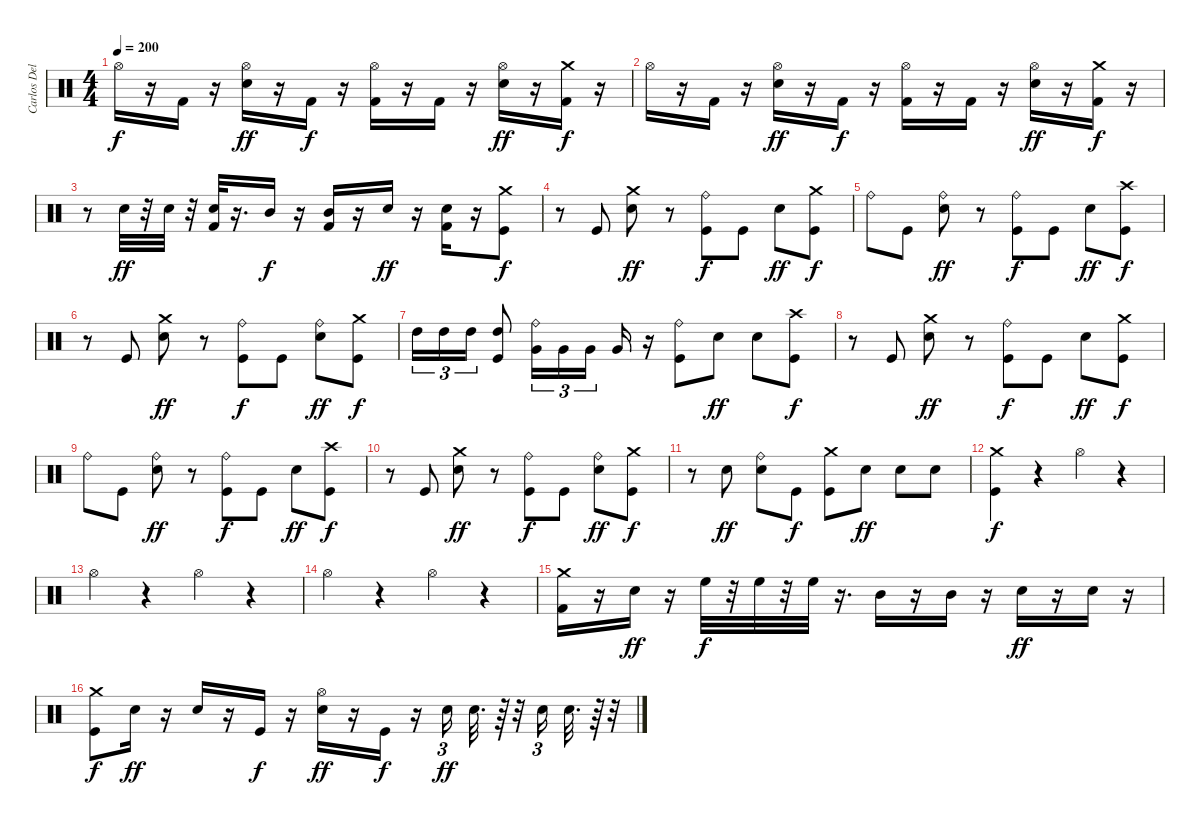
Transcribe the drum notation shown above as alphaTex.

\track ("Carlos Delgado" "Carlos Del") {instrument percussion}
\staff {score}
\articulation defaults
\ts (4 4)
\tempo 200
\clef neutral
\ks c "Hi-Hat (open)".16{dy f}
r.16 "Kick (hit) 2".16 r.16 ("Electric Snare (hit)" "Hi-Hat (open)").16{dy ff} r.16 "Kick (hit) 2".16{dy f} r.16 ("Hi-Hat (open)" "Kick (hit) 2").16 r.16 "Kick (hit) 2".16 r.16 ("Hi-Hat (open)" "Electric Snare (hit)").16{dy ff} r.16 ("Kick (hit) 2" "Crash medium (hit)").16{dy f} r.16 |
"Hi-Hat (open)".16 r.16 "Kick (hit) 2".16 r.16 ("Hi-Hat (open)" "Electric Snare (hit)").16{dy ff} r.16 "Kick (hit) 2".16{dy f} r.16 ("Hi-Hat (open)" "Kick (hit) 2").16 r.16 "Kick (hit) 2".16 r.16 ("Hi-Hat (open)" "Electric Snare (hit)").16{dy ff} r.16 ("Kick (hit) 2" "Crash medium (hit)").16{dy f} r.16 |
r.8 "Electric Snare (hit)".32{dy ff} r.32 "Electric Snare (hit)".32 r.32 ("Kick (hit) 2" "Electric Snare (hit)").32 r.16{d} "Mid Tom (hit)".16{dy f} r.16 ("Kick (hit) 2" "Mid Tom (hit)").16 r.16 "Electric Snare (hit)".16{dy ff} r.16 ("Electric Snare (hit)" "Kick (hit) 2").16 r.16 ("Crash medium (hit)" "Kick (hit)").8{dy f} |
r.8 "Kick (hit)".8 ("Crash medium (hit)" "Electric Snare (hit)").8{dy ff} r.8 ("Ride (bell)" "Kick (hit)").8{dy f} "Kick (hit)".8 "Electric Snare (hit)".8{dy ff} ("Kick (hit)" "Crash medium (hit)").8{dy f} |
"Ride (bell)".8 "Kick (hit)".8 ("Ride (bell)" "Electric Snare (hit)").8{dy ff} r.8 ("Kick (hit)" "Ride (bell)").8{dy f} "Kick (hit)".8 "Electric Snare (hit)".8{dy ff} ("Crash high (hit)" "Kick (hit)").8{dy f} |
r.8 "Kick (hit)".8 ("Crash medium (hit)" "Electric Snare (hit)").8{dy ff} r.8 ("Ride (bell)" "Kick (hit)").8{dy f} "Kick (hit)".8 ("Electric Snare (hit)" "Ride (bell)").8{dy ff} ("Kick (hit)" "Crash medium (hit)").8{dy f} |
"High Tom (hit)".16{tu (3 2)} "High Tom (hit)".16{tu (3 2)} "High Tom (hit)".16{tu (3 2)} ("Kick (hit)" "High Tom (hit)").8 ("Very Low Tom (hit)" "Ride (bell)").16{tu (3 2)} "Very Low Tom (hit)".16{tu (3 2)} "Very Low Tom (hit)".16{tu (3 2) beam splitsecondary} "Very Low Tom (hit)".16 r.16 ("Kick (hit)" "Ride (bell)").8 "Electric Snare (hit)".8{dy ff} "Electric Snare (hit)".8 ("Crash high (hit)" "Kick (hit)").8{dy f} |
r.8 "Kick (hit)".8 ("Electric Snare (hit)" "Crash medium (hit)").8{dy ff} r.8 ("Kick (hit)" "Ride (bell)").8{dy f} "Kick (hit)".8 "Electric Snare (hit)".8{dy ff} ("Kick (hit)" "Crash medium (hit)").8{dy f} |
"Ride (bell)".8 "Kick (hit)".8 ("Ride (bell)" "Electric Snare (hit)").8{dy ff} r.8 ("Kick (hit)" "Ride (bell)").8{dy f} "Kick (hit)".8 "Electric Snare (hit)".8{dy ff} ("Crash high (hit)" "Kick (hit)").8{dy f} |
r.8 "Kick (hit)".8 ("Crash medium (hit)" "Electric Snare (hit)").8{dy ff} r.8 ("Ride (bell)" "Kick (hit)").8{dy f} "Kick (hit)".8 ("Electric Snare (hit)" "Ride (bell)").8{dy ff} ("Kick (hit)" "Crash medium (hit)").8{dy f} |
r.8 "Electric Snare (hit)".8{dy ff} ("Ride (bell)" "Electric Snare (hit)").8 "Kick (hit)".8{dy f} ("Kick (hit)" "Crash medium (hit)").8 "Electric Snare (hit)".8{dy ff} "Electric Snare (hit)".8 "Electric Snare (hit)".8 |
("Crash medium (hit)" "Kick (hit)").4{dy f} r.4 "Hi-Hat (open)".4 r.4 |
"Hi-Hat (open)".4 r.4 "Hi-Hat (open)".4 r.4 |
"Hi-Hat (open)".4 r.4 "Hi-Hat (open)".4 r.4 |
("Kick (hit) 2" "Crash medium (hit)").16 r.16 "Electric Snare (hit)".16{dy ff} r.16 "High Floor Tom (hit)".32{dy f} r.32 "High Floor Tom (hit)".32 r.32 "High Floor Tom (hit)".32 r.16{d} "Mid Tom (hit)".16 r.16 "Mid Tom (hit)".16 r.16 "Electric Snare (hit)".16{dy ff} r.16 "Electric Snare (hit)".16 r.16 |
("Kick (hit)" "Crash medium (hit)").8{dy f} "Electric Snare (hit)".16{dy ff} r.16 "Electric Snare (hit)".16 r.16 "Kick (hit)".16{dy f} r.16 ("Electric Snare (hit)" "Hi-Hat (open)").16{dy ff} r.16 "Kick (hit)".16{dy f} r.16 "Electric Snare (hit)".16{tu (3 2) dy ff} "Electric Snare (hit)".32{d} r.64 r.32 "Electric Snare (hit)".16{tu (3 2)} "Electric Snare (hit)".32{d} r.64 r.32
